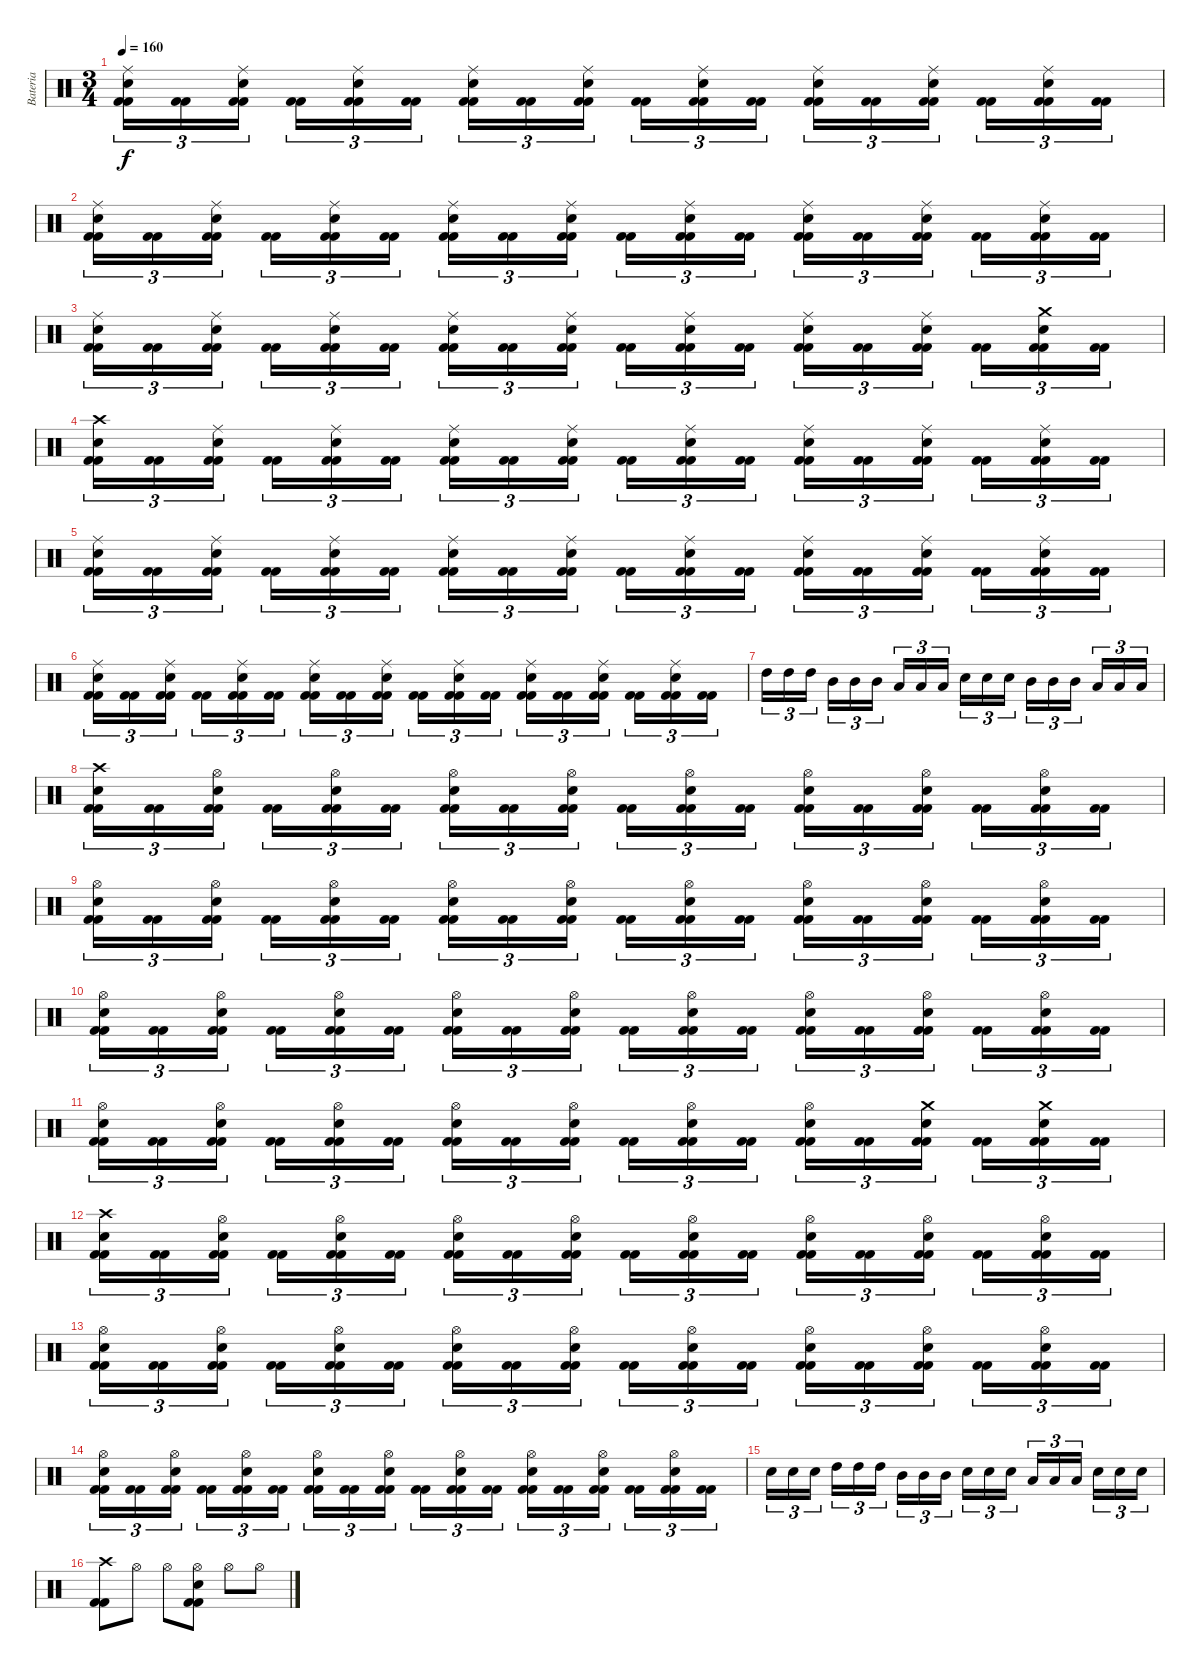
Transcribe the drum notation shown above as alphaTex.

\track ("Bateria" "Bateria") {instrument percussion}
\staff {score}
\articulation defaults
\ts (3 4)
\tempo 160
\clef neutral
\ks c
("Kick (hit) 2" "Kick (hit) 2" "Snare (hit) 2" "Ride (middle)").16{tu (3 2) dy f} ("Kick (hit) 2" "Kick (hit) 2").16{tu (3 2)} ("Kick (hit) 2" "Kick (hit) 2" "Snare (hit) 2" "Ride (middle)").16{tu (3 2)} ("Kick (hit) 2" "Kick (hit) 2").16{tu (3 2)} ("Kick (hit) 2" "Kick (hit) 2" "Snare (hit) 2" "Ride (middle)").16{tu (3 2)} ("Kick (hit) 2" "Kick (hit) 2").16{tu (3 2)} ("Kick (hit) 2" "Kick (hit) 2" "Snare (hit) 2" "Ride (middle)").16{tu (3 2)} ("Kick (hit) 2" "Kick (hit) 2").16{tu (3 2)} ("Kick (hit) 2" "Kick (hit) 2" "Snare (hit) 2" "Ride (middle)").16{tu (3 2)} ("Kick (hit) 2" "Kick (hit) 2").16{tu (3 2)} ("Kick (hit) 2" "Kick (hit) 2" "Snare (hit) 2" "Ride (middle)").16{tu (3 2)} ("Kick (hit) 2" "Kick (hit) 2").16{tu (3 2)} ("Kick (hit) 2" "Kick (hit) 2" "Snare (hit) 2" "Ride (middle)").16{tu (3 2)} ("Kick (hit) 2" "Kick (hit) 2").16{tu (3 2)} ("Kick (hit) 2" "Kick (hit) 2" "Snare (hit) 2" "Ride (middle)").16{tu (3 2)} ("Kick (hit) 2" "Kick (hit) 2").16{tu (3 2)} ("Kick (hit) 2" "Kick (hit) 2" "Snare (hit) 2" "Ride (middle)").16{tu (3 2)} ("Kick (hit) 2" "Kick (hit) 2").16{tu (3 2)} |
("Kick (hit) 2" "Kick (hit) 2" "Snare (hit) 2" "Ride (middle)").16{tu (3 2)} ("Kick (hit) 2" "Kick (hit) 2").16{tu (3 2)} ("Kick (hit) 2" "Kick (hit) 2" "Snare (hit) 2" "Ride (middle)").16{tu (3 2)} ("Kick (hit) 2" "Kick (hit) 2").16{tu (3 2)} ("Kick (hit) 2" "Kick (hit) 2" "Snare (hit) 2" "Ride (middle)").16{tu (3 2)} ("Kick (hit) 2" "Kick (hit) 2").16{tu (3 2)} ("Kick (hit) 2" "Kick (hit) 2" "Snare (hit) 2" "Ride (middle)").16{tu (3 2)} ("Kick (hit) 2" "Kick (hit) 2").16{tu (3 2)} ("Kick (hit) 2" "Kick (hit) 2" "Snare (hit) 2" "Ride (middle)").16{tu (3 2)} ("Kick (hit) 2" "Kick (hit) 2").16{tu (3 2)} ("Kick (hit) 2" "Kick (hit) 2" "Snare (hit) 2" "Ride (middle)").16{tu (3 2)} ("Kick (hit) 2" "Kick (hit) 2").16{tu (3 2)} ("Kick (hit) 2" "Kick (hit) 2" "Snare (hit) 2" "Ride (middle)").16{tu (3 2)} ("Kick (hit) 2" "Kick (hit) 2").16{tu (3 2)} ("Kick (hit) 2" "Kick (hit) 2" "Snare (hit) 2" "Ride (middle)").16{tu (3 2)} ("Kick (hit) 2" "Kick (hit) 2").16{tu (3 2)} ("Kick (hit) 2" "Kick (hit) 2" "Snare (hit) 2" "Ride (middle)").16{tu (3 2)} ("Kick (hit) 2" "Kick (hit) 2").16{tu (3 2)} |
("Kick (hit) 2" "Kick (hit) 2" "Snare (hit) 2" "Ride (middle)").16{tu (3 2)} ("Kick (hit) 2" "Kick (hit) 2").16{tu (3 2)} ("Kick (hit) 2" "Kick (hit) 2" "Snare (hit) 2" "Ride (middle)").16{tu (3 2)} ("Kick (hit) 2" "Kick (hit) 2").16{tu (3 2)} ("Kick (hit) 2" "Kick (hit) 2" "Snare (hit) 2" "Ride (middle)").16{tu (3 2)} ("Kick (hit) 2" "Kick (hit) 2").16{tu (3 2)} ("Kick (hit) 2" "Kick (hit) 2" "Snare (hit) 2" "Ride (middle)").16{tu (3 2)} ("Kick (hit) 2" "Kick (hit) 2").16{tu (3 2)} ("Kick (hit) 2" "Kick (hit) 2" "Snare (hit) 2" "Ride (middle)").16{tu (3 2)} ("Kick (hit) 2" "Kick (hit) 2").16{tu (3 2)} ("Kick (hit) 2" "Kick (hit) 2" "Snare (hit) 2" "Ride (middle)").16{tu (3 2)} ("Kick (hit) 2" "Kick (hit) 2").16{tu (3 2)} ("Kick (hit) 2" "Kick (hit) 2" "Snare (hit) 2" "Ride (middle)").16{tu (3 2)} ("Kick (hit) 2" "Kick (hit) 2").16{tu (3 2)} ("Kick (hit) 2" "Kick (hit) 2" "Snare (hit) 2" "Ride (middle)").16{tu (3 2)} ("Kick (hit) 2" "Kick (hit) 2").16{tu (3 2)} ("Kick (hit) 2" "Kick (hit) 2" "Snare (hit) 2" "Crash medium (hit)").16{tu (3 2)} ("Kick (hit) 2" "Kick (hit) 2").16{tu (3 2)} |
("Kick (hit) 2" "Kick (hit) 2" "Snare (hit) 2" "Crash high (hit)").16{tu (3 2)} ("Kick (hit) 2" "Kick (hit) 2").16{tu (3 2)} ("Kick (hit) 2" "Kick (hit) 2" "Snare (hit) 2" "Ride (middle)").16{tu (3 2)} ("Kick (hit) 2" "Kick (hit) 2").16{tu (3 2)} ("Kick (hit) 2" "Kick (hit) 2" "Snare (hit) 2" "Ride (middle)").16{tu (3 2)} ("Kick (hit) 2" "Kick (hit) 2").16{tu (3 2)} ("Kick (hit) 2" "Kick (hit) 2" "Snare (hit) 2" "Ride (middle)").16{tu (3 2)} ("Kick (hit) 2" "Kick (hit) 2").16{tu (3 2)} ("Kick (hit) 2" "Kick (hit) 2" "Snare (hit) 2" "Ride (middle)").16{tu (3 2)} ("Kick (hit) 2" "Kick (hit) 2").16{tu (3 2)} ("Kick (hit) 2" "Kick (hit) 2" "Snare (hit) 2" "Ride (middle)").16{tu (3 2)} ("Kick (hit) 2" "Kick (hit) 2").16{tu (3 2)} ("Kick (hit) 2" "Kick (hit) 2" "Snare (hit) 2" "Ride (middle)").16{tu (3 2)} ("Kick (hit) 2" "Kick (hit) 2").16{tu (3 2)} ("Kick (hit) 2" "Kick (hit) 2" "Snare (hit) 2" "Ride (middle)").16{tu (3 2)} ("Kick (hit) 2" "Kick (hit) 2").16{tu (3 2)} ("Kick (hit) 2" "Kick (hit) 2" "Snare (hit) 2" "Ride (middle)").16{tu (3 2)} ("Kick (hit) 2" "Kick (hit) 2").16{tu (3 2)} |
("Kick (hit) 2" "Kick (hit) 2" "Snare (hit) 2" "Ride (middle)").16{tu (3 2)} ("Kick (hit) 2" "Kick (hit) 2").16{tu (3 2)} ("Kick (hit) 2" "Kick (hit) 2" "Snare (hit) 2" "Ride (middle)").16{tu (3 2)} ("Kick (hit) 2" "Kick (hit) 2").16{tu (3 2)} ("Kick (hit) 2" "Kick (hit) 2" "Snare (hit) 2" "Ride (middle)").16{tu (3 2)} ("Kick (hit) 2" "Kick (hit) 2").16{tu (3 2)} ("Kick (hit) 2" "Kick (hit) 2" "Snare (hit) 2" "Ride (middle)").16{tu (3 2)} ("Kick (hit) 2" "Kick (hit) 2").16{tu (3 2)} ("Kick (hit) 2" "Kick (hit) 2" "Snare (hit) 2" "Ride (middle)").16{tu (3 2)} ("Kick (hit) 2" "Kick (hit) 2").16{tu (3 2)} ("Kick (hit) 2" "Kick (hit) 2" "Snare (hit) 2" "Ride (middle)").16{tu (3 2)} ("Kick (hit) 2" "Kick (hit) 2").16{tu (3 2)} ("Kick (hit) 2" "Kick (hit) 2" "Snare (hit) 2" "Ride (middle)").16{tu (3 2)} ("Kick (hit) 2" "Kick (hit) 2").16{tu (3 2)} ("Kick (hit) 2" "Kick (hit) 2" "Snare (hit) 2" "Ride (middle)").16{tu (3 2)} ("Kick (hit) 2" "Kick (hit) 2").16{tu (3 2)} ("Kick (hit) 2" "Kick (hit) 2" "Snare (hit) 2" "Ride (middle)").16{tu (3 2)} ("Kick (hit) 2" "Kick (hit) 2").16{tu (3 2)} |
("Kick (hit) 2" "Kick (hit) 2" "Snare (hit) 2" "Ride (middle)").16{tu (3 2)} ("Kick (hit) 2" "Kick (hit) 2").16{tu (3 2)} ("Kick (hit) 2" "Kick (hit) 2" "Snare (hit) 2" "Ride (middle)").16{tu (3 2)} ("Kick (hit) 2" "Kick (hit) 2").16{tu (3 2)} ("Kick (hit) 2" "Kick (hit) 2" "Snare (hit) 2" "Ride (middle)").16{tu (3 2)} ("Kick (hit) 2" "Kick (hit) 2").16{tu (3 2)} ("Kick (hit) 2" "Kick (hit) 2" "Snare (hit) 2" "Ride (middle)").16{tu (3 2)} ("Kick (hit) 2" "Kick (hit) 2").16{tu (3 2)} ("Kick (hit) 2" "Kick (hit) 2" "Snare (hit) 2" "Ride (middle)").16{tu (3 2)} ("Kick (hit) 2" "Kick (hit) 2").16{tu (3 2)} ("Kick (hit) 2" "Kick (hit) 2" "Snare (hit) 2" "Ride (middle)").16{tu (3 2)} ("Kick (hit) 2" "Kick (hit) 2").16{tu (3 2)} ("Kick (hit) 2" "Kick (hit) 2" "Snare (hit) 2" "Ride (middle)").16{tu (3 2)} ("Kick (hit) 2" "Kick (hit) 2").16{tu (3 2)} ("Kick (hit) 2" "Kick (hit) 2" "Snare (hit) 2" "Ride (middle)").16{tu (3 2)} ("Kick (hit) 2" "Kick (hit) 2").16{tu (3 2)} ("Kick (hit) 2" "Kick (hit) 2" "Snare (hit) 2" "Ride (middle)").16{tu (3 2)} ("Kick (hit) 2" "Kick (hit) 2").16{tu (3 2)} |
"High Tom (hit)".16{tu (3 2)} "High Tom (hit)".16{tu (3 2)} "High Tom (hit)".16{tu (3 2)} "Mid Tom (hit)".16{tu (3 2)} "Mid Tom (hit)".16{tu (3 2)} "Mid Tom (hit)".16{tu (3 2)} "Low Tom (hit)".16{tu (3 2)} "Low Tom (hit)".16{tu (3 2)} "Low Tom (hit)".16{tu (3 2)} "Snare (hit) 2".16{tu (3 2)} "Snare (hit) 2".16{tu (3 2)} "Snare (hit) 2".16{tu (3 2)} "Mid Tom (hit)".16{tu (3 2)} "Mid Tom (hit)".16{tu (3 2)} "Mid Tom (hit)".16{tu (3 2)} "Low Tom (hit)".16{tu (3 2)} "Low Tom (hit)".16{tu (3 2)} "Low Tom (hit)".16{tu (3 2)} |
("Kick (hit) 2" "Kick (hit) 2" "Snare (hit) 2" "Crash high (hit)").16{tu (3 2)} ("Kick (hit) 2" "Kick (hit) 2").16{tu (3 2)} ("Kick (hit) 2" "Kick (hit) 2" "Snare (hit) 2" "Hi-Hat (open)").16{tu (3 2)} ("Kick (hit) 2" "Kick (hit) 2").16{tu (3 2)} ("Kick (hit) 2" "Kick (hit) 2" "Snare (hit) 2" "Hi-Hat (open)").16{tu (3 2)} ("Kick (hit) 2" "Kick (hit) 2").16{tu (3 2)} ("Kick (hit) 2" "Kick (hit) 2" "Snare (hit) 2" "Hi-Hat (open)").16{tu (3 2)} ("Kick (hit) 2" "Kick (hit) 2").16{tu (3 2)} ("Kick (hit) 2" "Kick (hit) 2" "Snare (hit) 2" "Hi-Hat (open)").16{tu (3 2)} ("Kick (hit) 2" "Kick (hit) 2").16{tu (3 2)} ("Kick (hit) 2" "Kick (hit) 2" "Snare (hit) 2" "Hi-Hat (open)").16{tu (3 2)} ("Kick (hit) 2" "Kick (hit) 2").16{tu (3 2)} ("Kick (hit) 2" "Kick (hit) 2" "Snare (hit) 2" "Hi-Hat (open)").16{tu (3 2)} ("Kick (hit) 2" "Kick (hit) 2").16{tu (3 2)} ("Kick (hit) 2" "Kick (hit) 2" "Snare (hit) 2" "Hi-Hat (open)").16{tu (3 2)} ("Kick (hit) 2" "Kick (hit) 2").16{tu (3 2)} ("Kick (hit) 2" "Kick (hit) 2" "Snare (hit) 2" "Hi-Hat (open)").16{tu (3 2)} ("Kick (hit) 2" "Kick (hit) 2").16{tu (3 2)} |
("Kick (hit) 2" "Kick (hit) 2" "Snare (hit) 2" "Hi-Hat (open)").16{tu (3 2)} ("Kick (hit) 2" "Kick (hit) 2").16{tu (3 2)} ("Kick (hit) 2" "Kick (hit) 2" "Snare (hit) 2" "Hi-Hat (open)").16{tu (3 2)} ("Kick (hit) 2" "Kick (hit) 2").16{tu (3 2)} ("Kick (hit) 2" "Kick (hit) 2" "Snare (hit) 2" "Hi-Hat (open)").16{tu (3 2)} ("Kick (hit) 2" "Kick (hit) 2").16{tu (3 2)} ("Kick (hit) 2" "Kick (hit) 2" "Snare (hit) 2" "Hi-Hat (open)").16{tu (3 2)} ("Kick (hit) 2" "Kick (hit) 2").16{tu (3 2)} ("Kick (hit) 2" "Kick (hit) 2" "Snare (hit) 2" "Hi-Hat (open)").16{tu (3 2)} ("Kick (hit) 2" "Kick (hit) 2").16{tu (3 2)} ("Kick (hit) 2" "Kick (hit) 2" "Snare (hit) 2" "Hi-Hat (open)").16{tu (3 2)} ("Kick (hit) 2" "Kick (hit) 2").16{tu (3 2)} ("Kick (hit) 2" "Kick (hit) 2" "Snare (hit) 2" "Hi-Hat (open)").16{tu (3 2)} ("Kick (hit) 2" "Kick (hit) 2").16{tu (3 2)} ("Kick (hit) 2" "Kick (hit) 2" "Snare (hit) 2" "Hi-Hat (open)").16{tu (3 2)} ("Kick (hit) 2" "Kick (hit) 2").16{tu (3 2)} ("Kick (hit) 2" "Kick (hit) 2" "Snare (hit) 2" "Hi-Hat (open)").16{tu (3 2)} ("Kick (hit) 2" "Kick (hit) 2").16{tu (3 2)} |
("Kick (hit) 2" "Kick (hit) 2" "Snare (hit) 2" "Hi-Hat (open)").16{tu (3 2)} ("Kick (hit) 2" "Kick (hit) 2").16{tu (3 2)} ("Kick (hit) 2" "Kick (hit) 2" "Snare (hit) 2" "Hi-Hat (open)").16{tu (3 2)} ("Kick (hit) 2" "Kick (hit) 2").16{tu (3 2)} ("Kick (hit) 2" "Kick (hit) 2" "Snare (hit) 2" "Hi-Hat (open)").16{tu (3 2)} ("Kick (hit) 2" "Kick (hit) 2").16{tu (3 2)} ("Kick (hit) 2" "Kick (hit) 2" "Snare (hit) 2" "Hi-Hat (open)").16{tu (3 2)} ("Kick (hit) 2" "Kick (hit) 2").16{tu (3 2)} ("Kick (hit) 2" "Kick (hit) 2" "Snare (hit) 2" "Hi-Hat (open)").16{tu (3 2)} ("Kick (hit) 2" "Kick (hit) 2").16{tu (3 2)} ("Kick (hit) 2" "Kick (hit) 2" "Snare (hit) 2" "Hi-Hat (open)").16{tu (3 2)} ("Kick (hit) 2" "Kick (hit) 2").16{tu (3 2)} ("Kick (hit) 2" "Kick (hit) 2" "Snare (hit) 2" "Hi-Hat (open)").16{tu (3 2)} ("Kick (hit) 2" "Kick (hit) 2").16{tu (3 2)} ("Kick (hit) 2" "Kick (hit) 2" "Snare (hit) 2" "Hi-Hat (open)").16{tu (3 2)} ("Kick (hit) 2" "Kick (hit) 2").16{tu (3 2)} ("Kick (hit) 2" "Kick (hit) 2" "Snare (hit) 2" "Hi-Hat (open)").16{tu (3 2)} ("Kick (hit) 2" "Kick (hit) 2").16{tu (3 2)} |
("Kick (hit) 2" "Kick (hit) 2" "Snare (hit) 2" "Hi-Hat (open)").16{tu (3 2)} ("Kick (hit) 2" "Kick (hit) 2").16{tu (3 2)} ("Kick (hit) 2" "Kick (hit) 2" "Snare (hit) 2" "Hi-Hat (open)").16{tu (3 2)} ("Kick (hit) 2" "Kick (hit) 2").16{tu (3 2)} ("Kick (hit) 2" "Kick (hit) 2" "Snare (hit) 2" "Hi-Hat (open)").16{tu (3 2)} ("Kick (hit) 2" "Kick (hit) 2").16{tu (3 2)} ("Kick (hit) 2" "Kick (hit) 2" "Snare (hit) 2" "Hi-Hat (open)").16{tu (3 2)} ("Kick (hit) 2" "Kick (hit) 2").16{tu (3 2)} ("Kick (hit) 2" "Kick (hit) 2" "Snare (hit) 2" "Hi-Hat (open)").16{tu (3 2)} ("Kick (hit) 2" "Kick (hit) 2").16{tu (3 2)} ("Kick (hit) 2" "Kick (hit) 2" "Snare (hit) 2" "Hi-Hat (open)").16{tu (3 2)} ("Kick (hit) 2" "Kick (hit) 2").16{tu (3 2)} ("Kick (hit) 2" "Kick (hit) 2" "Snare (hit) 2" "Hi-Hat (open)").16{tu (3 2)} ("Kick (hit) 2" "Kick (hit) 2").16{tu (3 2)} ("Kick (hit) 2" "Kick (hit) 2" "Snare (hit) 2" "Crash medium (hit)").16{tu (3 2)} ("Kick (hit) 2" "Kick (hit) 2").16{tu (3 2)} ("Kick (hit) 2" "Kick (hit) 2" "Snare (hit) 2" "Crash medium (hit)").16{tu (3 2)} ("Kick (hit) 2" "Kick (hit) 2").16{tu (3 2)} |
("Kick (hit) 2" "Kick (hit) 2" "Snare (hit) 2" "Crash high (hit)").16{tu (3 2)} ("Kick (hit) 2" "Kick (hit) 2").16{tu (3 2)} ("Kick (hit) 2" "Kick (hit) 2" "Snare (hit) 2" "Hi-Hat (open)").16{tu (3 2)} ("Kick (hit) 2" "Kick (hit) 2").16{tu (3 2)} ("Kick (hit) 2" "Kick (hit) 2" "Snare (hit) 2" "Hi-Hat (open)").16{tu (3 2)} ("Kick (hit) 2" "Kick (hit) 2").16{tu (3 2)} ("Kick (hit) 2" "Kick (hit) 2" "Snare (hit) 2" "Hi-Hat (open)").16{tu (3 2)} ("Kick (hit) 2" "Kick (hit) 2").16{tu (3 2)} ("Kick (hit) 2" "Kick (hit) 2" "Snare (hit) 2" "Hi-Hat (open)").16{tu (3 2)} ("Kick (hit) 2" "Kick (hit) 2").16{tu (3 2)} ("Kick (hit) 2" "Kick (hit) 2" "Snare (hit) 2" "Hi-Hat (open)").16{tu (3 2)} ("Kick (hit) 2" "Kick (hit) 2").16{tu (3 2)} ("Kick (hit) 2" "Kick (hit) 2" "Snare (hit) 2" "Hi-Hat (open)").16{tu (3 2)} ("Kick (hit) 2" "Kick (hit) 2").16{tu (3 2)} ("Kick (hit) 2" "Kick (hit) 2" "Snare (hit) 2" "Hi-Hat (open)").16{tu (3 2)} ("Kick (hit) 2" "Kick (hit) 2").16{tu (3 2)} ("Kick (hit) 2" "Kick (hit) 2" "Snare (hit) 2" "Hi-Hat (open)").16{tu (3 2)} ("Kick (hit) 2" "Kick (hit) 2").16{tu (3 2)} |
("Kick (hit) 2" "Kick (hit) 2" "Snare (hit) 2" "Hi-Hat (open)").16{tu (3 2)} ("Kick (hit) 2" "Kick (hit) 2").16{tu (3 2)} ("Kick (hit) 2" "Kick (hit) 2" "Snare (hit) 2" "Hi-Hat (open)").16{tu (3 2)} ("Kick (hit) 2" "Kick (hit) 2").16{tu (3 2)} ("Kick (hit) 2" "Kick (hit) 2" "Snare (hit) 2" "Hi-Hat (open)").16{tu (3 2)} ("Kick (hit) 2" "Kick (hit) 2").16{tu (3 2)} ("Kick (hit) 2" "Kick (hit) 2" "Snare (hit) 2" "Hi-Hat (open)").16{tu (3 2)} ("Kick (hit) 2" "Kick (hit) 2").16{tu (3 2)} ("Kick (hit) 2" "Kick (hit) 2" "Snare (hit) 2" "Hi-Hat (open)").16{tu (3 2)} ("Kick (hit) 2" "Kick (hit) 2").16{tu (3 2)} ("Kick (hit) 2" "Kick (hit) 2" "Snare (hit) 2" "Hi-Hat (open)").16{tu (3 2)} ("Kick (hit) 2" "Kick (hit) 2").16{tu (3 2)} ("Kick (hit) 2" "Kick (hit) 2" "Snare (hit) 2" "Hi-Hat (open)").16{tu (3 2)} ("Kick (hit) 2" "Kick (hit) 2").16{tu (3 2)} ("Kick (hit) 2" "Kick (hit) 2" "Snare (hit) 2" "Hi-Hat (open)").16{tu (3 2)} ("Kick (hit) 2" "Kick (hit) 2").16{tu (3 2)} ("Kick (hit) 2" "Kick (hit) 2" "Snare (hit) 2" "Hi-Hat (open)").16{tu (3 2)} ("Kick (hit) 2" "Kick (hit) 2").16{tu (3 2)} |
("Kick (hit) 2" "Kick (hit) 2" "Snare (hit) 2" "Hi-Hat (open)").16{tu (3 2)} ("Kick (hit) 2" "Kick (hit) 2").16{tu (3 2)} ("Kick (hit) 2" "Kick (hit) 2" "Snare (hit) 2" "Hi-Hat (open)").16{tu (3 2)} ("Kick (hit) 2" "Kick (hit) 2").16{tu (3 2)} ("Kick (hit) 2" "Kick (hit) 2" "Snare (hit) 2" "Hi-Hat (open)").16{tu (3 2)} ("Kick (hit) 2" "Kick (hit) 2").16{tu (3 2)} ("Kick (hit) 2" "Kick (hit) 2" "Snare (hit) 2" "Hi-Hat (open)").16{tu (3 2)} ("Kick (hit) 2" "Kick (hit) 2").16{tu (3 2)} ("Kick (hit) 2" "Kick (hit) 2" "Snare (hit) 2" "Hi-Hat (open)").16{tu (3 2)} ("Kick (hit) 2" "Kick (hit) 2").16{tu (3 2)} ("Kick (hit) 2" "Kick (hit) 2" "Snare (hit) 2" "Hi-Hat (open)").16{tu (3 2)} ("Kick (hit) 2" "Kick (hit) 2").16{tu (3 2)} ("Kick (hit) 2" "Kick (hit) 2" "Snare (hit) 2" "Hi-Hat (open)").16{tu (3 2)} ("Kick (hit) 2" "Kick (hit) 2").16{tu (3 2)} ("Kick (hit) 2" "Kick (hit) 2" "Snare (hit) 2" "Hi-Hat (open)").16{tu (3 2)} ("Kick (hit) 2" "Kick (hit) 2").16{tu (3 2)} ("Kick (hit) 2" "Kick (hit) 2" "Snare (hit) 2" "Hi-Hat (open)").16{tu (3 2)} ("Kick (hit) 2" "Kick (hit) 2").16{tu (3 2)} |
"Snare (hit) 2".16{tu (3 2)} "Snare (hit) 2".16{tu (3 2)} "Snare (hit) 2".16{tu (3 2)} "High Tom (hit)".16{tu (3 2)} "High Tom (hit)".16{tu (3 2)} "High Tom (hit)".16{tu (3 2)} "Mid Tom (hit)".16{tu (3 2)} "Mid Tom (hit)".16{tu (3 2)} "Mid Tom (hit)".16{tu (3 2)} "Snare (hit) 2".16{tu (3 2)} "Snare (hit) 2".16{tu (3 2)} "Snare (hit) 2".16{tu (3 2)} "Low Tom (hit)".16{tu (3 2)} "Low Tom (hit)".16{tu (3 2)} "Low Tom (hit)".16{tu (3 2)} "Snare (hit) 2".16{tu (3 2)} "Snare (hit) 2".16{tu (3 2)} "Snare (hit) 2".16{tu (3 2)} |
("Crash high (hit)" "Kick (hit) 2" "Kick (hit) 2").8 "Hi-Hat (open)".8 "Hi-Hat (open)".8 ("Kick (hit) 2" "Kick (hit) 2" "Snare (hit) 2" "Hi-Hat (open)").8 "Hi-Hat (open)".8 "Hi-Hat (open)".8
